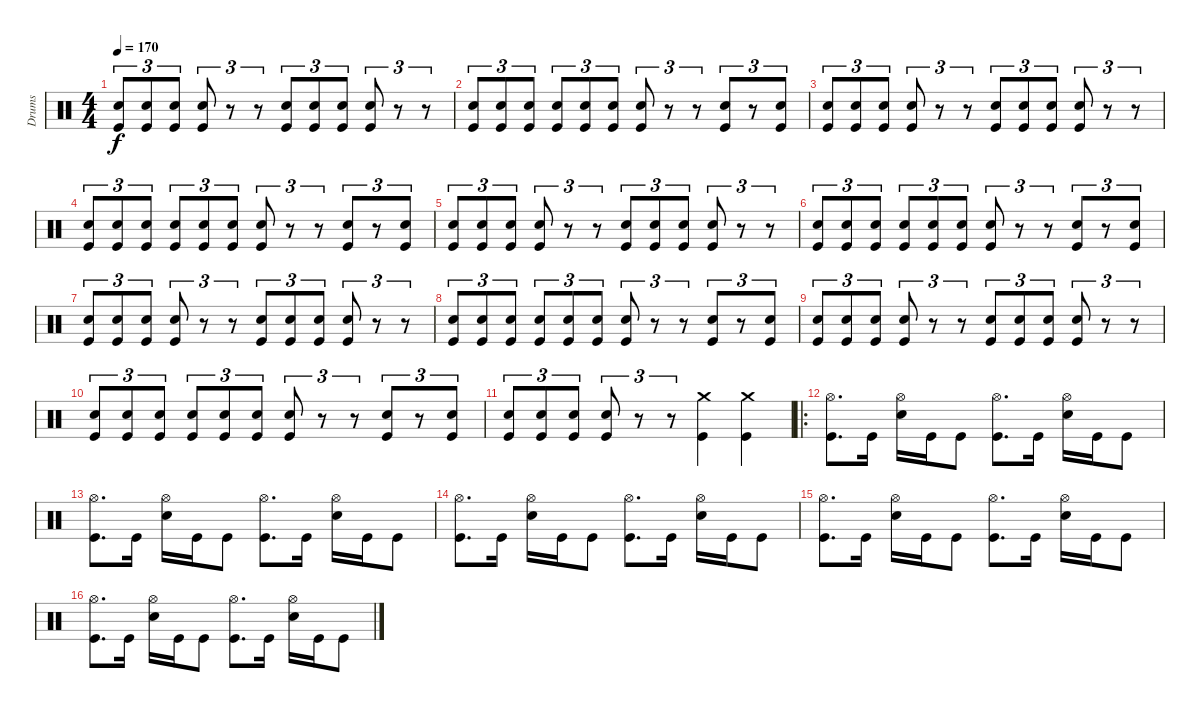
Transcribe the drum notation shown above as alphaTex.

\track ("Drums" "Drums") {instrument percussion}
\staff {score}
\articulation defaults
\ts (4 4)
\tempo 170
\clef neutral
\ks c
("Snare (hit) 2" "Kick (hit)").8{tu (3 2) dy f} ("Snare (hit) 2" "Kick (hit)").8{tu (3 2)} ("Snare (hit) 2" "Kick (hit)").8{tu (3 2)} ("Snare (hit) 2" "Kick (hit)").8{tu (3 2)} r.8{tu (3 2)} r.8{tu (3 2)} ("Snare (hit) 2" "Kick (hit)").8{tu (3 2)} ("Snare (hit) 2" "Kick (hit)").8{tu (3 2)} ("Snare (hit) 2" "Kick (hit)").8{tu (3 2)} ("Snare (hit) 2" "Kick (hit)").8{tu (3 2)} r.8{tu (3 2)} r.8{tu (3 2)} |
("Snare (hit) 2" "Kick (hit)").8{tu (3 2)} ("Snare (hit) 2" "Kick (hit)").8{tu (3 2)} ("Snare (hit) 2" "Kick (hit)").8{tu (3 2)} ("Snare (hit) 2" "Kick (hit)").8{tu (3 2)} ("Snare (hit) 2" "Kick (hit)").8{tu (3 2)} ("Snare (hit) 2" "Kick (hit)").8{tu (3 2)} ("Snare (hit) 2" "Kick (hit)").8{tu (3 2)} r.8{tu (3 2)} r.8{tu (3 2)} ("Snare (hit) 2" "Kick (hit)").8{tu (3 2)} r.8{tu (3 2)} ("Snare (hit) 2" "Kick (hit)").8{tu (3 2)} |
("Snare (hit) 2" "Kick (hit)").8{tu (3 2)} ("Snare (hit) 2" "Kick (hit)").8{tu (3 2)} ("Snare (hit) 2" "Kick (hit)").8{tu (3 2)} ("Snare (hit) 2" "Kick (hit)").8{tu (3 2)} r.8{tu (3 2)} r.8{tu (3 2)} ("Snare (hit) 2" "Kick (hit)").8{tu (3 2)} ("Snare (hit) 2" "Kick (hit)").8{tu (3 2)} ("Snare (hit) 2" "Kick (hit)").8{tu (3 2)} ("Snare (hit) 2" "Kick (hit)").8{tu (3 2)} r.8{tu (3 2)} r.8{tu (3 2)} |
("Snare (hit) 2" "Kick (hit)").8{tu (3 2)} ("Snare (hit) 2" "Kick (hit)").8{tu (3 2)} ("Snare (hit) 2" "Kick (hit)").8{tu (3 2)} ("Snare (hit) 2" "Kick (hit)").8{tu (3 2)} ("Snare (hit) 2" "Kick (hit)").8{tu (3 2)} ("Snare (hit) 2" "Kick (hit)").8{tu (3 2)} ("Snare (hit) 2" "Kick (hit)").8{tu (3 2)} r.8{tu (3 2)} r.8{tu (3 2)} ("Snare (hit) 2" "Kick (hit)").8{tu (3 2)} r.8{tu (3 2)} ("Snare (hit) 2" "Kick (hit)").8{tu (3 2)} |
("Snare (hit) 2" "Kick (hit)").8{tu (3 2)} ("Snare (hit) 2" "Kick (hit)").8{tu (3 2)} ("Snare (hit) 2" "Kick (hit)").8{tu (3 2)} ("Snare (hit) 2" "Kick (hit)").8{tu (3 2)} r.8{tu (3 2)} r.8{tu (3 2)} ("Snare (hit) 2" "Kick (hit)").8{tu (3 2)} ("Snare (hit) 2" "Kick (hit)").8{tu (3 2)} ("Snare (hit) 2" "Kick (hit)").8{tu (3 2)} ("Snare (hit) 2" "Kick (hit)").8{tu (3 2)} r.8{tu (3 2)} r.8{tu (3 2)} |
("Snare (hit) 2" "Kick (hit)").8{tu (3 2)} ("Snare (hit) 2" "Kick (hit)").8{tu (3 2)} ("Snare (hit) 2" "Kick (hit)").8{tu (3 2)} ("Snare (hit) 2" "Kick (hit)").8{tu (3 2)} ("Snare (hit) 2" "Kick (hit)").8{tu (3 2)} ("Snare (hit) 2" "Kick (hit)").8{tu (3 2)} ("Snare (hit) 2" "Kick (hit)").8{tu (3 2)} r.8{tu (3 2)} r.8{tu (3 2)} ("Snare (hit) 2" "Kick (hit)").8{tu (3 2)} r.8{tu (3 2)} ("Snare (hit) 2" "Kick (hit)").8{tu (3 2)} |
("Snare (hit) 2" "Kick (hit)").8{tu (3 2)} ("Snare (hit) 2" "Kick (hit)").8{tu (3 2)} ("Snare (hit) 2" "Kick (hit)").8{tu (3 2)} ("Snare (hit) 2" "Kick (hit)").8{tu (3 2)} r.8{tu (3 2)} r.8{tu (3 2)} ("Snare (hit) 2" "Kick (hit)").8{tu (3 2)} ("Snare (hit) 2" "Kick (hit)").8{tu (3 2)} ("Snare (hit) 2" "Kick (hit)").8{tu (3 2)} ("Snare (hit) 2" "Kick (hit)").8{tu (3 2)} r.8{tu (3 2)} r.8{tu (3 2)} |
("Snare (hit) 2" "Kick (hit)").8{tu (3 2)} ("Snare (hit) 2" "Kick (hit)").8{tu (3 2)} ("Snare (hit) 2" "Kick (hit)").8{tu (3 2)} ("Snare (hit) 2" "Kick (hit)").8{tu (3 2)} ("Snare (hit) 2" "Kick (hit)").8{tu (3 2)} ("Snare (hit) 2" "Kick (hit)").8{tu (3 2)} ("Snare (hit) 2" "Kick (hit)").8{tu (3 2)} r.8{tu (3 2)} r.8{tu (3 2)} ("Snare (hit) 2" "Kick (hit)").8{tu (3 2)} r.8{tu (3 2)} ("Snare (hit) 2" "Kick (hit)").8{tu (3 2)} |
("Snare (hit) 2" "Kick (hit)").8{tu (3 2)} ("Snare (hit) 2" "Kick (hit)").8{tu (3 2)} ("Snare (hit) 2" "Kick (hit)").8{tu (3 2)} ("Snare (hit) 2" "Kick (hit)").8{tu (3 2)} r.8{tu (3 2)} r.8{tu (3 2)} ("Snare (hit) 2" "Kick (hit)").8{tu (3 2)} ("Snare (hit) 2" "Kick (hit)").8{tu (3 2)} ("Snare (hit) 2" "Kick (hit)").8{tu (3 2)} ("Snare (hit) 2" "Kick (hit)").8{tu (3 2)} r.8{tu (3 2)} r.8{tu (3 2)} |
("Snare (hit) 2" "Kick (hit)").8{tu (3 2)} ("Snare (hit) 2" "Kick (hit)").8{tu (3 2)} ("Snare (hit) 2" "Kick (hit)").8{tu (3 2)} ("Snare (hit) 2" "Kick (hit)").8{tu (3 2)} ("Snare (hit) 2" "Kick (hit)").8{tu (3 2)} ("Snare (hit) 2" "Kick (hit)").8{tu (3 2)} ("Snare (hit) 2" "Kick (hit)").8{tu (3 2)} r.8{tu (3 2)} r.8{tu (3 2)} ("Snare (hit) 2" "Kick (hit)").8{tu (3 2)} r.8{tu (3 2)} ("Snare (hit) 2" "Kick (hit)").8{tu (3 2)} |
("Snare (hit) 2" "Kick (hit)").8{tu (3 2)} ("Snare (hit) 2" "Kick (hit)").8{tu (3 2)} ("Snare (hit) 2" "Kick (hit)").8{tu (3 2)} ("Snare (hit) 2" "Kick (hit)").8{tu (3 2)} r.8{tu (3 2)} r.8{tu (3 2)} ("Crash medium (hit)" "Kick (hit)").4 ("Crash medium (hit)" "Kick (hit)").4 |
\ro
("Hi-Hat (open)" "Kick (hit)").8{d} "Kick (hit)".16 ("Hi-Hat (open)" "Snare (hit) 2").16 "Kick (hit)".16 "Kick (hit)".8 ("Hi-Hat (open)" "Kick (hit)").8{d} "Kick (hit)".16 ("Hi-Hat (open)" "Snare (hit) 2").16 "Kick (hit)".16 "Kick (hit)".8 |
("Hi-Hat (open)" "Kick (hit)").8{d} "Kick (hit)".16 ("Hi-Hat (open)" "Snare (hit) 2").16 "Kick (hit)".16 "Kick (hit)".8 ("Hi-Hat (open)" "Kick (hit)").8{d} "Kick (hit)".16 ("Hi-Hat (open)" "Snare (hit) 2").16 "Kick (hit)".16 "Kick (hit)".8 |
("Hi-Hat (open)" "Kick (hit)").8{d} "Kick (hit)".16 ("Hi-Hat (open)" "Snare (hit) 2").16 "Kick (hit)".16 "Kick (hit)".8 ("Hi-Hat (open)" "Kick (hit)").8{d} "Kick (hit)".16 ("Hi-Hat (open)" "Snare (hit) 2").16 "Kick (hit)".16 "Kick (hit)".8 |
("Hi-Hat (open)" "Kick (hit)").8{d} "Kick (hit)".16 ("Hi-Hat (open)" "Snare (hit) 2").16 "Kick (hit)".16 "Kick (hit)".8 ("Hi-Hat (open)" "Kick (hit)").8{d} "Kick (hit)".16 ("Hi-Hat (open)" "Snare (hit) 2").16 "Kick (hit)".16 "Kick (hit)".8 |
("Hi-Hat (open)" "Kick (hit)").8{d} "Kick (hit)".16 ("Hi-Hat (open)" "Snare (hit) 2").16 "Kick (hit)".16 "Kick (hit)".8 ("Hi-Hat (open)" "Kick (hit)").8{d} "Kick (hit)".16 ("Hi-Hat (open)" "Snare (hit) 2").16 "Kick (hit)".16 "Kick (hit)".8
